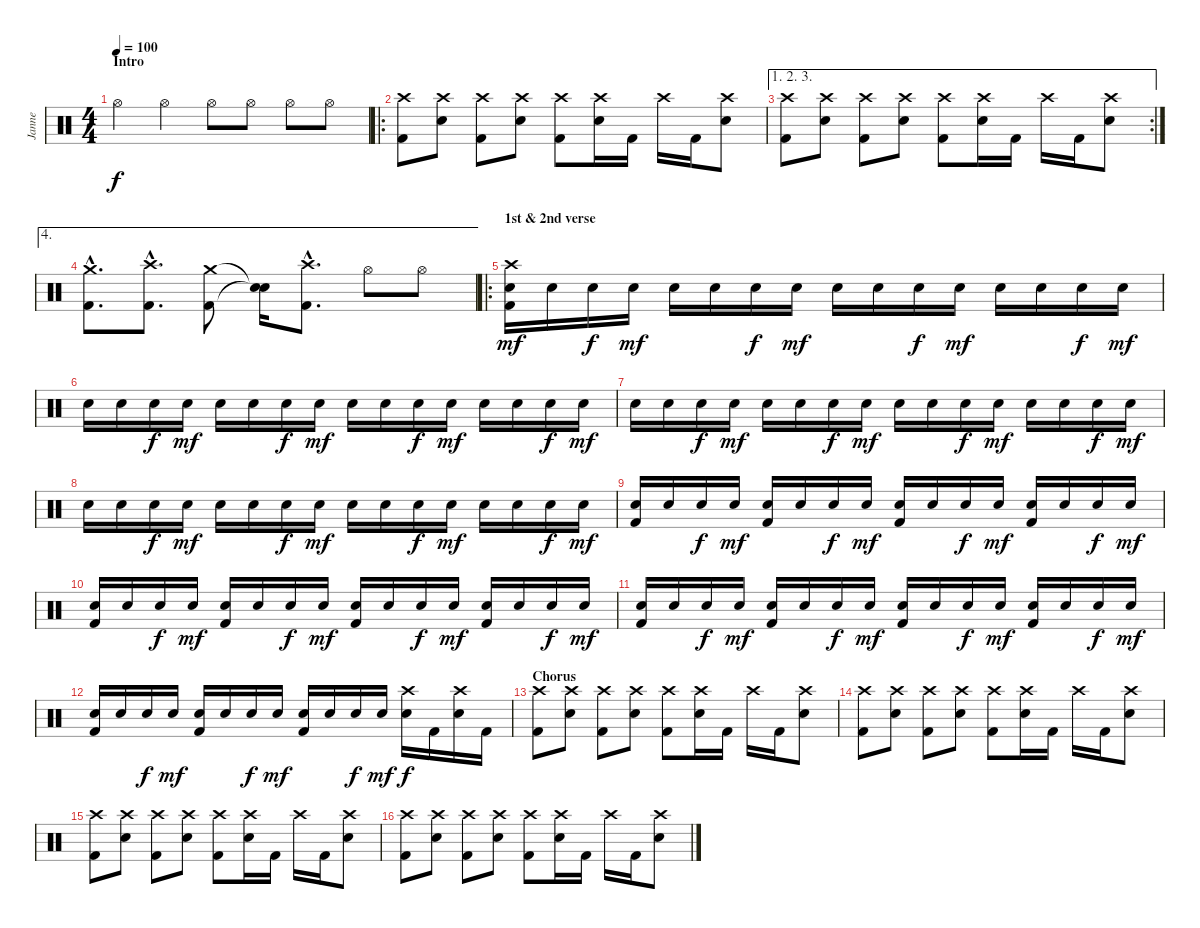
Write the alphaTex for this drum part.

\track ("Janne" "Janne") {instrument percussion}
\staff {score}
\articulation defaults
\ts (4 4)
\section ("" "Intro")
\tempo 100
\clef neutral
\ks c "Hi-Hat (open)".4{dy f} "Hi-Hat (open)".4 "Hi-Hat (open)".8 "Hi-Hat (open)".8 "Hi-Hat (open)".8 "Hi-Hat (open)".8
|
\ro
("Crash high (hit)" "Kick (hit) 2").8 ("Crash high (hit)" "Electric Snare (hit)").8 ("Crash high (hit)" "Kick (hit) 2").8 ("Crash high (hit)" "Electric Snare (hit)").8 ("Crash high (hit)" "Kick (hit) 2").8 ("Crash high (hit)" "Electric Snare (hit)").16 "Kick (hit) 2".16 "Crash high (hit)".16 "Kick (hit) 2".16 ("Crash high (hit)" "Electric Snare (hit)").8 |
\ae (1 2 3)
\rc 2
("Crash high (hit)" "Kick (hit) 2").8 ("Crash high (hit)" "Electric Snare (hit)").8 ("Crash high (hit)" "Kick (hit) 2").8 ("Crash high (hit)" "Electric Snare (hit)").8 ("Crash high (hit)" "Kick (hit) 2").8 ("Crash high (hit)" "Electric Snare (hit)").16 "Kick (hit) 2".16 "Crash high (hit)".16 "Kick (hit) 2".16 ("Crash high (hit)" "Electric Snare (hit)").8 |
\ae 4
("Crash medium (hit)"{hac} "Kick (hit) 2"{hac}).8{d} ("Crash high (hit)"{hac} "Kick (hit) 2"{hac}).8{d} ("Crash medium (hit)" "Kick (hit) 2").8 ("Snare (hit)"{t} "Snare (hit)"{t}).16 ("Crash high (hit)"{hac} "Kick (hit) 2"{hac}).8{d} "Hi-Hat (open)".8 "Hi-Hat (open)".8 |
\ro
\section ("" "1st & 2nd verse")
("Crash high (hit)" "Electric Snare (hit)" "Kick (hit) 2").16{dy mf} "Electric Snare (hit)".16 "Electric Snare (hit)".16{dy f} "Electric Snare (hit)".16{dy mf} "Electric Snare (hit)".16 "Electric Snare (hit)".16 "Electric Snare (hit)".16{dy f} "Electric Snare (hit)".16{dy mf} "Electric Snare (hit)".16 "Electric Snare (hit)".16 "Electric Snare (hit)".16{dy f} "Electric Snare (hit)".16{dy mf} "Electric Snare (hit)".16 "Electric Snare (hit)".16 "Electric Snare (hit)".16{dy f} "Electric Snare (hit)".16{dy mf} |
"Electric Snare (hit)".16 "Electric Snare (hit)".16 "Electric Snare (hit)".16{dy f} "Electric Snare (hit)".16{dy mf} "Electric Snare (hit)".16 "Electric Snare (hit)".16 "Electric Snare (hit)".16{dy f} "Electric Snare (hit)".16{dy mf} "Electric Snare (hit)".16 "Electric Snare (hit)".16 "Electric Snare (hit)".16{dy f} "Electric Snare (hit)".16{dy mf} "Electric Snare (hit)".16 "Electric Snare (hit)".16 "Electric Snare (hit)".16{dy f} "Electric Snare (hit)".16{dy mf} |
"Electric Snare (hit)".16 "Electric Snare (hit)".16 "Electric Snare (hit)".16{dy f} "Electric Snare (hit)".16{dy mf} "Electric Snare (hit)".16 "Electric Snare (hit)".16 "Electric Snare (hit)".16{dy f} "Electric Snare (hit)".16{dy mf} "Electric Snare (hit)".16 "Electric Snare (hit)".16 "Electric Snare (hit)".16{dy f} "Electric Snare (hit)".16{dy mf} "Electric Snare (hit)".16 "Electric Snare (hit)".16 "Electric Snare (hit)".16{dy f} "Electric Snare (hit)".16{dy mf} |
"Electric Snare (hit)".16 "Electric Snare (hit)".16 "Electric Snare (hit)".16{dy f} "Electric Snare (hit)".16{dy mf} "Electric Snare (hit)".16 "Electric Snare (hit)".16 "Electric Snare (hit)".16{dy f} "Electric Snare (hit)".16{dy mf} "Electric Snare (hit)".16 "Electric Snare (hit)".16 "Electric Snare (hit)".16{dy f} "Electric Snare (hit)".16{dy mf} "Electric Snare (hit)".16 "Electric Snare (hit)".16 "Electric Snare (hit)".16{dy f} "Electric Snare (hit)".16{dy mf} |
("Electric Snare (hit)" "Kick (hit) 2").16 "Electric Snare (hit)".16 "Electric Snare (hit)".16{dy f} "Electric Snare (hit)".16{dy mf} ("Electric Snare (hit)" "Kick (hit) 2").16 "Electric Snare (hit)".16 "Electric Snare (hit)".16{dy f} "Electric Snare (hit)".16{dy mf} ("Electric Snare (hit)" "Kick (hit) 2").16 "Electric Snare (hit)".16 "Electric Snare (hit)".16{dy f} "Electric Snare (hit)".16{dy mf} ("Electric Snare (hit)" "Kick (hit) 2").16 "Electric Snare (hit)".16 "Electric Snare (hit)".16{dy f} "Electric Snare (hit)".16{dy mf} |
("Electric Snare (hit)" "Kick (hit) 2").16 "Electric Snare (hit)".16 "Electric Snare (hit)".16{dy f} "Electric Snare (hit)".16{dy mf} ("Electric Snare (hit)" "Kick (hit) 2").16 "Electric Snare (hit)".16 "Electric Snare (hit)".16{dy f} "Electric Snare (hit)".16{dy mf} ("Electric Snare (hit)" "Kick (hit) 2").16 "Electric Snare (hit)".16 "Electric Snare (hit)".16{dy f} "Electric Snare (hit)".16{dy mf} ("Electric Snare (hit)" "Kick (hit) 2").16 "Electric Snare (hit)".16 "Electric Snare (hit)".16{dy f} "Electric Snare (hit)".16{dy mf} |
("Electric Snare (hit)" "Kick (hit) 2").16 "Electric Snare (hit)".16 "Electric Snare (hit)".16{dy f} "Electric Snare (hit)".16{dy mf} ("Electric Snare (hit)" "Kick (hit) 2").16 "Electric Snare (hit)".16 "Electric Snare (hit)".16{dy f} "Electric Snare (hit)".16{dy mf} ("Electric Snare (hit)" "Kick (hit) 2").16 "Electric Snare (hit)".16 "Electric Snare (hit)".16{dy f} "Electric Snare (hit)".16{dy mf} ("Electric Snare (hit)" "Kick (hit) 2").16 "Electric Snare (hit)".16 "Electric Snare (hit)".16{dy f} "Electric Snare (hit)".16{dy mf} |
("Electric Snare (hit)" "Kick (hit) 2").16 "Electric Snare (hit)".16 "Electric Snare (hit)".16{dy f} "Electric Snare (hit)".16{dy mf} ("Electric Snare (hit)" "Kick (hit) 2").16 "Electric Snare (hit)".16 "Electric Snare (hit)".16{dy f} "Electric Snare (hit)".16{dy mf} ("Electric Snare (hit)" "Kick (hit) 2").16 "Electric Snare (hit)".16 "Electric Snare (hit)".16{dy f} "Electric Snare (hit)".16{dy mf} ("Crash high (hit)" "Electric Snare (hit)").16{dy f} "Kick (hit) 2".16 ("Crash high (hit)" "Electric Snare (hit)").16 "Kick (hit) 2".16 |
\section ("" "Chorus")
("Crash high (hit)" "Kick (hit) 2").8 ("Crash high (hit)" "Electric Snare (hit)").8 ("Crash high (hit)" "Kick (hit) 2").8 ("Crash high (hit)" "Electric Snare (hit)").8 ("Crash high (hit)" "Kick (hit) 2").8 ("Crash high (hit)" "Electric Snare (hit)").16 "Kick (hit) 2".16 "Crash high (hit)".16 "Kick (hit) 2".16 ("Crash high (hit)" "Electric Snare (hit)").8 |
("Crash high (hit)" "Kick (hit) 2").8 ("Crash high (hit)" "Electric Snare (hit)").8 ("Crash high (hit)" "Kick (hit) 2").8 ("Crash high (hit)" "Electric Snare (hit)").8 ("Crash high (hit)" "Kick (hit) 2").8 ("Crash high (hit)" "Electric Snare (hit)").16 "Kick (hit) 2".16 "Crash high (hit)".16 "Kick (hit) 2".16 ("Crash high (hit)" "Electric Snare (hit)").8 |
("Crash high (hit)" "Kick (hit) 2").8 ("Crash high (hit)" "Electric Snare (hit)").8 ("Crash high (hit)" "Kick (hit) 2").8 ("Crash high (hit)" "Electric Snare (hit)").8 ("Crash high (hit)" "Kick (hit) 2").8 ("Crash high (hit)" "Electric Snare (hit)").16 "Kick (hit) 2".16 "Crash high (hit)".16 "Kick (hit) 2".16 ("Crash high (hit)" "Electric Snare (hit)").8 |
("Crash high (hit)" "Kick (hit) 2").8 ("Crash high (hit)" "Electric Snare (hit)").8 ("Crash high (hit)" "Kick (hit) 2").8 ("Crash high (hit)" "Electric Snare (hit)").8 ("Crash high (hit)" "Kick (hit) 2").8 ("Crash high (hit)" "Electric Snare (hit)").16 "Kick (hit) 2".16 "Crash high (hit)".16 "Kick (hit) 2".16 ("Crash high (hit)" "Electric Snare (hit)").8
